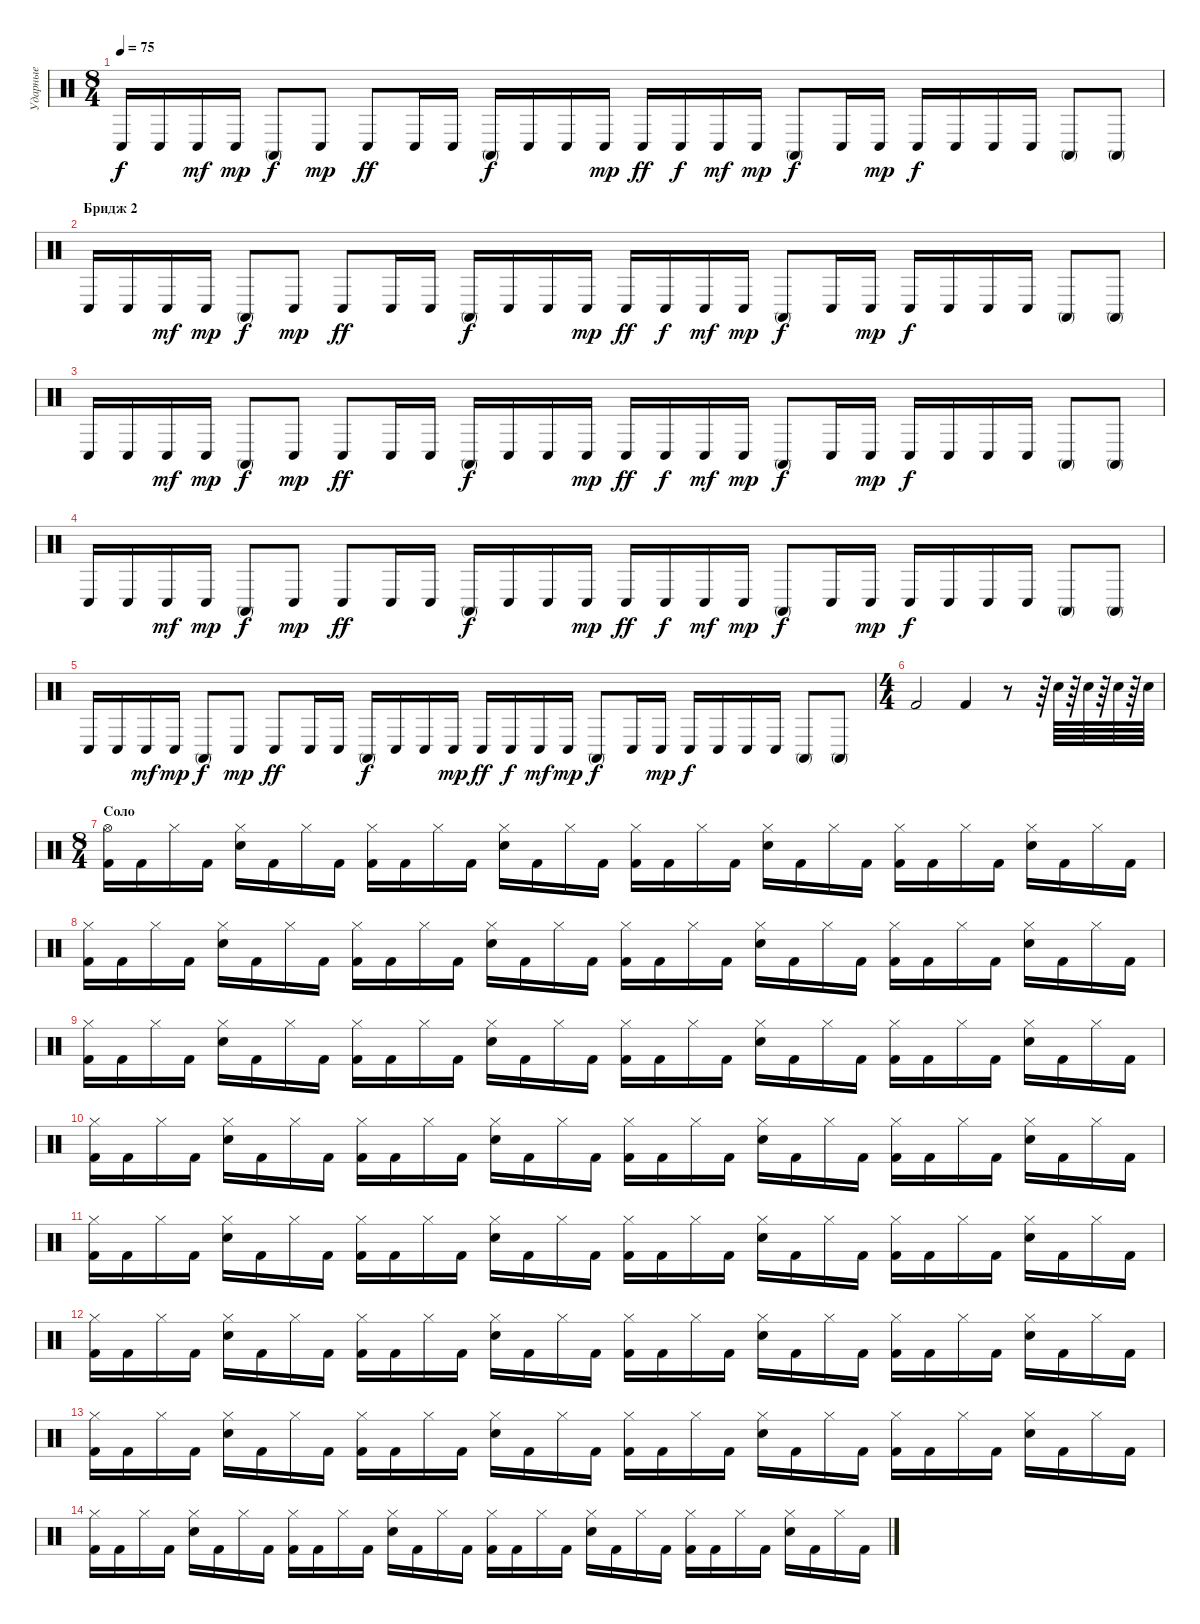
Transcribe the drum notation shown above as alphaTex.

\track ("Ударные" "Ударные") {instrument percussion}
\staff {score}
\articulation defaults
\ts (8 4)
\tempo 75
\clef neutral
\ks c "Conga low (hit)".16{dy f} "Conga low (hit)".16 "Conga low (hit)".16{dy mf} "Conga low (hit)".16{dy mp} "Conga high (mute)".8{dy f} "Conga low (hit)".8{dy mp} "Conga low (hit)".8{dy ff} "Conga low (hit)".16 "Conga low (hit)".16 "Conga high (mute)".16{dy f} "Conga low (hit)".16 "Conga low (hit)".16 "Conga low (hit)".16{dy mp} "Conga low (hit)".16{dy ff} "Conga low (hit)".16{dy f} "Conga low (hit)".16{dy mf} "Conga low (hit)".16{dy mp} "Conga high (mute)".8{dy f} "Conga low (hit)".16 "Conga low (hit)".16{dy mp} "Conga low (hit)".16{dy f} "Conga low (hit)".16 "Conga low (hit)".16 "Conga low (hit)".16 "Conga high (mute)".8 "Conga high (mute)".8
|
\section ("" "Бридж 2")
"Conga low (hit)".16 "Conga low (hit)".16 "Conga low (hit)".16{dy mf} "Conga low (hit)".16{dy mp} "Conga high (mute)".8{dy f} "Conga low (hit)".8{dy mp} "Conga low (hit)".8{dy ff} "Conga low (hit)".16 "Conga low (hit)".16 "Conga high (mute)".16{dy f} "Conga low (hit)".16 "Conga low (hit)".16 "Conga low (hit)".16{dy mp} "Conga low (hit)".16{dy ff} "Conga low (hit)".16{dy f} "Conga low (hit)".16{dy mf} "Conga low (hit)".16{dy mp} "Conga high (mute)".8{dy f} "Conga low (hit)".16 "Conga low (hit)".16{dy mp} "Conga low (hit)".16{dy f} "Conga low (hit)".16 "Conga low (hit)".16 "Conga low (hit)".16 "Conga high (mute)".8 "Conga high (mute)".8 |
"Conga low (hit)".16 "Conga low (hit)".16 "Conga low (hit)".16{dy mf} "Conga low (hit)".16{dy mp} "Conga high (mute)".8{dy f} "Conga low (hit)".8{dy mp} "Conga low (hit)".8{dy ff} "Conga low (hit)".16 "Conga low (hit)".16 "Conga high (mute)".16{dy f} "Conga low (hit)".16 "Conga low (hit)".16 "Conga low (hit)".16{dy mp} "Conga low (hit)".16{dy ff} "Conga low (hit)".16{dy f} "Conga low (hit)".16{dy mf} "Conga low (hit)".16{dy mp} "Conga high (mute)".8{dy f} "Conga low (hit)".16 "Conga low (hit)".16{dy mp} "Conga low (hit)".16{dy f} "Conga low (hit)".16 "Conga low (hit)".16 "Conga low (hit)".16 "Conga high (mute)".8 "Conga high (mute)".8 |
"Conga low (hit)".16 "Conga low (hit)".16 "Conga low (hit)".16{dy mf} "Conga low (hit)".16{dy mp} "Conga high (mute)".8{dy f} "Conga low (hit)".8{dy mp} "Conga low (hit)".8{dy ff} "Conga low (hit)".16 "Conga low (hit)".16 "Conga high (mute)".16{dy f} "Conga low (hit)".16 "Conga low (hit)".16 "Conga low (hit)".16{dy mp} "Conga low (hit)".16{dy ff} "Conga low (hit)".16{dy f} "Conga low (hit)".16{dy mf} "Conga low (hit)".16{dy mp} "Conga high (mute)".8{dy f} "Conga low (hit)".16 "Conga low (hit)".16{dy mp} "Conga low (hit)".16{dy f} "Conga low (hit)".16 "Conga low (hit)".16 "Conga low (hit)".16 "Conga high (mute)".8 "Conga high (mute)".8 |
"Conga low (hit)".16 "Conga low (hit)".16 "Conga low (hit)".16{dy mf} "Conga low (hit)".16{dy mp} "Conga high (mute)".8{dy f} "Conga low (hit)".8{dy mp} "Conga low (hit)".8{dy ff} "Conga low (hit)".16 "Conga low (hit)".16 "Conga high (mute)".16{dy f} "Conga low (hit)".16 "Conga low (hit)".16 "Conga low (hit)".16{dy mp} "Conga low (hit)".16{dy ff} "Conga low (hit)".16{dy f} "Conga low (hit)".16{dy mf} "Conga low (hit)".16{dy mp} "Conga high (mute)".8{dy f} "Conga low (hit)".16 "Conga low (hit)".16{dy mp} "Conga low (hit)".16{dy f} "Conga low (hit)".16 "Conga low (hit)".16 "Conga low (hit)".16 "Conga high (mute)".8 "Conga high (mute)".8 |
\ts (4 4)
"Kick (hit) 2".2 "Kick (hit) 2".4 r.8 r.64 "Electric Snare (hit)".64{volume 12} r.64 "Electric Snare (hit)".64 r.64 "Electric Snare (hit)".64 r.64 "Electric Snare (hit)".64 |
\ts (8 4)
\section ("" "Соло")
("Kick (hit) 2" "Hi-Hat (open)").16 "Kick (hit) 2".16 "Hi-Hat (closed)".16 "Kick (hit) 2".16 ("Electric Snare (hit)" "Hi-Hat (closed)").16 "Kick (hit) 2".16 "Hi-Hat (closed)".16 "Kick (hit) 2".16 ("Kick (hit) 2" "Hi-Hat (closed)").16 "Kick (hit) 2".16 "Hi-Hat (closed)".16 "Kick (hit) 2".16 ("Electric Snare (hit)" "Hi-Hat (closed)").16 "Kick (hit) 2".16 "Hi-Hat (closed)".16 "Kick (hit) 2".16 ("Kick (hit) 2" "Hi-Hat (closed)").16 "Kick (hit) 2".16 "Hi-Hat (closed)".16 "Kick (hit) 2".16 ("Electric Snare (hit)" "Hi-Hat (closed)").16 "Kick (hit) 2".16 "Hi-Hat (closed)".16 "Kick (hit) 2".16 ("Kick (hit) 2" "Hi-Hat (closed)").16 "Kick (hit) 2".16 "Hi-Hat (closed)".16 "Kick (hit) 2".16 ("Electric Snare (hit)" "Hi-Hat (closed)").16 "Kick (hit) 2".16 "Hi-Hat (closed)".16 "Kick (hit) 2".16 |
("Kick (hit) 2" "Hi-Hat (closed)").16 "Kick (hit) 2".16 "Hi-Hat (closed)".16 "Kick (hit) 2".16 ("Electric Snare (hit)" "Hi-Hat (closed)").16 "Kick (hit) 2".16 "Hi-Hat (closed)".16 "Kick (hit) 2".16 ("Kick (hit) 2" "Hi-Hat (closed)").16 "Kick (hit) 2".16 "Hi-Hat (closed)".16 "Kick (hit) 2".16 ("Electric Snare (hit)" "Hi-Hat (closed)").16 "Kick (hit) 2".16 "Hi-Hat (closed)".16 "Kick (hit) 2".16 ("Kick (hit) 2" "Hi-Hat (closed)").16 "Kick (hit) 2".16 "Hi-Hat (closed)".16 "Kick (hit) 2".16 ("Electric Snare (hit)" "Hi-Hat (closed)").16 "Kick (hit) 2".16 "Hi-Hat (closed)".16 "Kick (hit) 2".16 ("Kick (hit) 2" "Hi-Hat (closed)").16 "Kick (hit) 2".16 "Hi-Hat (closed)".16 "Kick (hit) 2".16 ("Electric Snare (hit)" "Hi-Hat (closed)").16 "Kick (hit) 2".16 "Hi-Hat (closed)".16 "Kick (hit) 2".16 |
("Kick (hit) 2" "Hi-Hat (closed)").16 "Kick (hit) 2".16 "Hi-Hat (closed)".16 "Kick (hit) 2".16 ("Electric Snare (hit)" "Hi-Hat (closed)").16 "Kick (hit) 2".16 "Hi-Hat (closed)".16 "Kick (hit) 2".16 ("Kick (hit) 2" "Hi-Hat (closed)").16 "Kick (hit) 2".16 "Hi-Hat (closed)".16 "Kick (hit) 2".16 ("Electric Snare (hit)" "Hi-Hat (closed)").16 "Kick (hit) 2".16 "Hi-Hat (closed)".16 "Kick (hit) 2".16 ("Kick (hit) 2" "Hi-Hat (closed)").16 "Kick (hit) 2".16 "Hi-Hat (closed)".16 "Kick (hit) 2".16 ("Electric Snare (hit)" "Hi-Hat (closed)").16 "Kick (hit) 2".16 "Hi-Hat (closed)".16 "Kick (hit) 2".16 ("Kick (hit) 2" "Hi-Hat (closed)").16 "Kick (hit) 2".16 "Hi-Hat (closed)".16 "Kick (hit) 2".16 ("Electric Snare (hit)" "Hi-Hat (closed)").16 "Kick (hit) 2".16 "Hi-Hat (closed)".16 "Kick (hit) 2".16 |
("Kick (hit) 2" "Hi-Hat (closed)").16 "Kick (hit) 2".16 "Hi-Hat (closed)".16 "Kick (hit) 2".16 ("Electric Snare (hit)" "Hi-Hat (closed)").16 "Kick (hit) 2".16 "Hi-Hat (closed)".16 "Kick (hit) 2".16 ("Kick (hit) 2" "Hi-Hat (closed)").16 "Kick (hit) 2".16 "Hi-Hat (closed)".16 "Kick (hit) 2".16 ("Electric Snare (hit)" "Hi-Hat (closed)").16 "Kick (hit) 2".16 "Hi-Hat (closed)".16 "Kick (hit) 2".16 ("Kick (hit) 2" "Hi-Hat (closed)").16 "Kick (hit) 2".16 "Hi-Hat (closed)".16 "Kick (hit) 2".16 ("Electric Snare (hit)" "Hi-Hat (closed)").16 "Kick (hit) 2".16 "Hi-Hat (closed)".16 "Kick (hit) 2".16 ("Kick (hit) 2" "Hi-Hat (closed)").16 "Kick (hit) 2".16 "Hi-Hat (closed)".16 "Kick (hit) 2".16 ("Electric Snare (hit)" "Hi-Hat (closed)").16 "Kick (hit) 2".16 "Hi-Hat (closed)".16 "Kick (hit) 2".16 |
("Kick (hit) 2" "Hi-Hat (closed)").16 "Kick (hit) 2".16 "Hi-Hat (closed)".16 "Kick (hit) 2".16 ("Electric Snare (hit)" "Hi-Hat (closed)").16 "Kick (hit) 2".16 "Hi-Hat (closed)".16 "Kick (hit) 2".16 ("Kick (hit) 2" "Hi-Hat (closed)").16 "Kick (hit) 2".16 "Hi-Hat (closed)".16 "Kick (hit) 2".16 ("Electric Snare (hit)" "Hi-Hat (closed)").16 "Kick (hit) 2".16 "Hi-Hat (closed)".16 "Kick (hit) 2".16 ("Kick (hit) 2" "Hi-Hat (closed)").16 "Kick (hit) 2".16 "Hi-Hat (closed)".16 "Kick (hit) 2".16 ("Electric Snare (hit)" "Hi-Hat (closed)").16 "Kick (hit) 2".16 "Hi-Hat (closed)".16 "Kick (hit) 2".16 ("Kick (hit) 2" "Hi-Hat (closed)").16 "Kick (hit) 2".16 "Hi-Hat (closed)".16 "Kick (hit) 2".16 ("Electric Snare (hit)" "Hi-Hat (closed)").16 "Kick (hit) 2".16 "Hi-Hat (closed)".16 "Kick (hit) 2".16 |
("Kick (hit) 2" "Hi-Hat (closed)").16 "Kick (hit) 2".16 "Hi-Hat (closed)".16 "Kick (hit) 2".16 ("Electric Snare (hit)" "Hi-Hat (closed)").16 "Kick (hit) 2".16 "Hi-Hat (closed)".16 "Kick (hit) 2".16 ("Kick (hit) 2" "Hi-Hat (closed)").16 "Kick (hit) 2".16 "Hi-Hat (closed)".16 "Kick (hit) 2".16 ("Electric Snare (hit)" "Hi-Hat (closed)").16 "Kick (hit) 2".16 "Hi-Hat (closed)".16 "Kick (hit) 2".16 ("Kick (hit) 2" "Hi-Hat (closed)").16 "Kick (hit) 2".16 "Hi-Hat (closed)".16 "Kick (hit) 2".16 ("Electric Snare (hit)" "Hi-Hat (closed)").16 "Kick (hit) 2".16 "Hi-Hat (closed)".16 "Kick (hit) 2".16 ("Kick (hit) 2" "Hi-Hat (closed)").16 "Kick (hit) 2".16 "Hi-Hat (closed)".16 "Kick (hit) 2".16 ("Electric Snare (hit)" "Hi-Hat (closed)").16 "Kick (hit) 2".16 "Hi-Hat (closed)".16 "Kick (hit) 2".16 |
("Kick (hit) 2" "Hi-Hat (closed)").16 "Kick (hit) 2".16 "Hi-Hat (closed)".16 "Kick (hit) 2".16 ("Electric Snare (hit)" "Hi-Hat (closed)").16 "Kick (hit) 2".16 "Hi-Hat (closed)".16 "Kick (hit) 2".16 ("Kick (hit) 2" "Hi-Hat (closed)").16 "Kick (hit) 2".16 "Hi-Hat (closed)".16 "Kick (hit) 2".16 ("Electric Snare (hit)" "Hi-Hat (closed)").16 "Kick (hit) 2".16 "Hi-Hat (closed)".16 "Kick (hit) 2".16 ("Kick (hit) 2" "Hi-Hat (closed)").16 "Kick (hit) 2".16 "Hi-Hat (closed)".16 "Kick (hit) 2".16 ("Electric Snare (hit)" "Hi-Hat (closed)").16 "Kick (hit) 2".16 "Hi-Hat (closed)".16 "Kick (hit) 2".16 ("Kick (hit) 2" "Hi-Hat (closed)").16 "Kick (hit) 2".16 "Hi-Hat (closed)".16 "Kick (hit) 2".16 ("Electric Snare (hit)" "Hi-Hat (closed)").16 "Kick (hit) 2".16 "Hi-Hat (closed)".16 "Kick (hit) 2".16 |
("Kick (hit) 2" "Hi-Hat (closed)").16 "Kick (hit) 2".16 "Hi-Hat (closed)".16 "Kick (hit) 2".16 ("Electric Snare (hit)" "Hi-Hat (closed)").16 "Kick (hit) 2".16 "Hi-Hat (closed)".16 "Kick (hit) 2".16 ("Kick (hit) 2" "Hi-Hat (closed)").16 "Kick (hit) 2".16 "Hi-Hat (closed)".16 "Kick (hit) 2".16 ("Electric Snare (hit)" "Hi-Hat (closed)").16 "Kick (hit) 2".16 "Hi-Hat (closed)".16 "Kick (hit) 2".16 ("Kick (hit) 2" "Hi-Hat (closed)").16 "Kick (hit) 2".16 "Hi-Hat (closed)".16 "Kick (hit) 2".16 ("Electric Snare (hit)" "Hi-Hat (closed)").16 "Kick (hit) 2".16 "Hi-Hat (closed)".16 "Kick (hit) 2".16 ("Kick (hit) 2" "Hi-Hat (closed)").16 "Kick (hit) 2".16 "Hi-Hat (closed)".16 "Kick (hit) 2".16 ("Electric Snare (hit)" "Hi-Hat (closed)").16 "Kick (hit) 2".16 "Hi-Hat (closed)".16 "Kick (hit) 2".16
